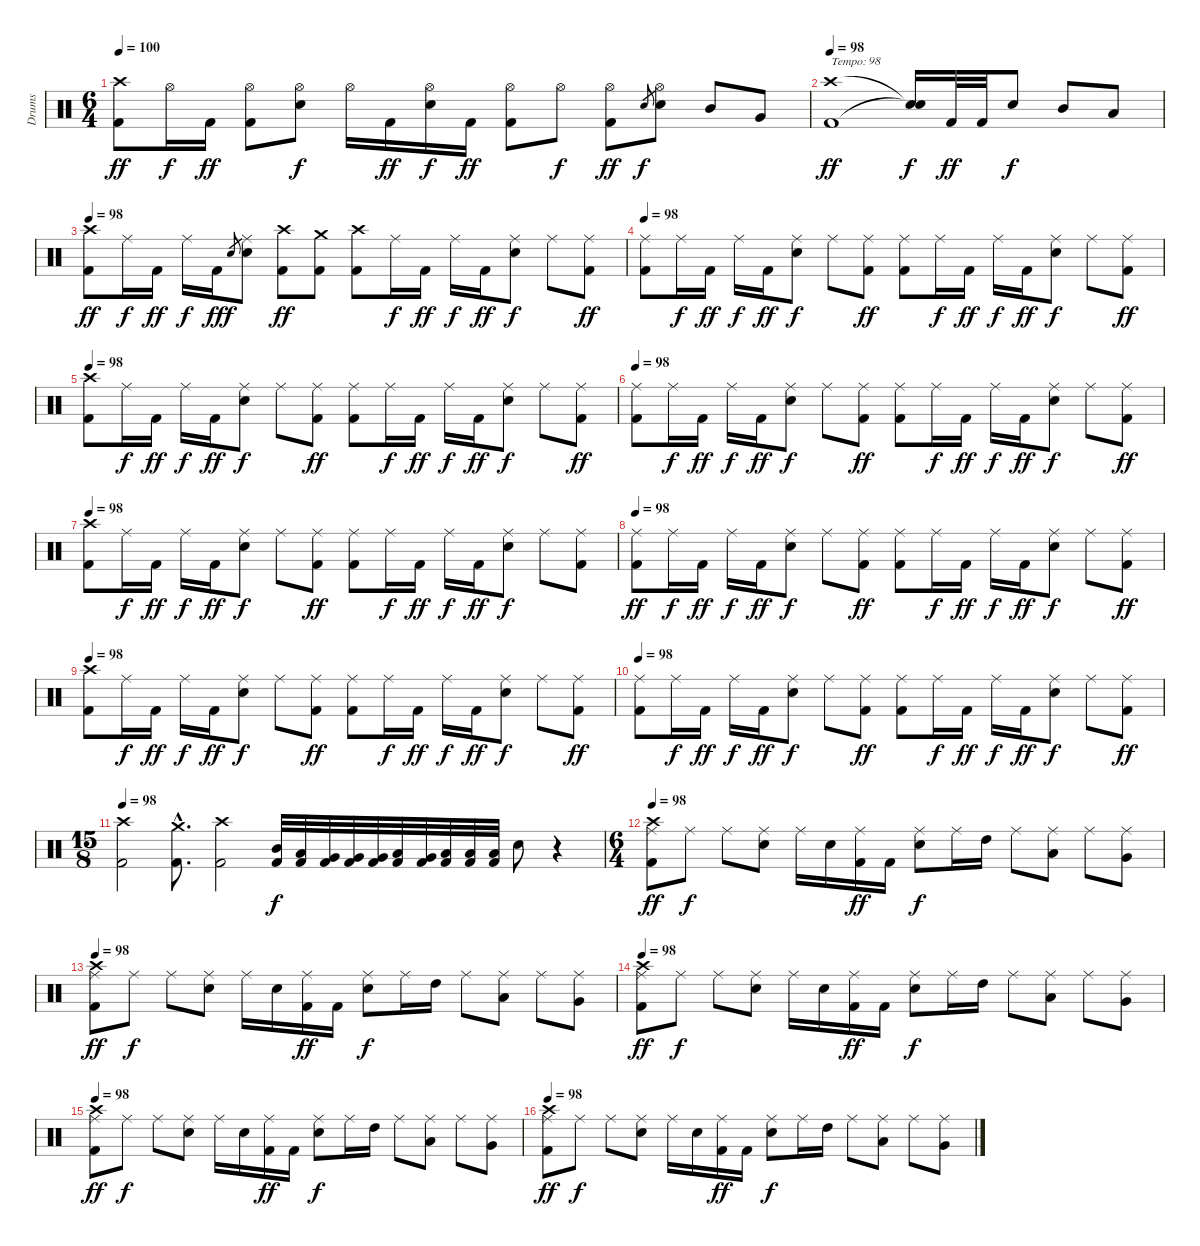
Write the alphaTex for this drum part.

\track ("Drums" "Drums") {instrument percussion}
\staff {score}
\articulation defaults
\ts (6 4)
\tempo 100
\clef neutral
\ks c
("Crash high (hit)" "Kick (hit) 2").8{dy ff} "Hi-Hat (open)".16{dy f} "Kick (hit) 2".16{dy ff} ("Hi-Hat (open)" "Kick (hit) 2").8 ("Hi-Hat (open)" "Electric Snare (hit)").8{dy f} "Hi-Hat (open)".16 "Kick (hit) 2".16{dy ff} ("Hi-Hat (open)" "Electric Snare (hit)").16{dy f} "Kick (hit) 2".16{dy ff} ("Hi-Hat (open)" "Kick (hit) 2").8 "Hi-Hat (open)".8{dy f} ("Hi-Hat (open)" "Kick (hit) 2").8{dy ff} "Electric Snare (hit)".8{gr dy f} ("Hi-Hat (open)" "Electric Snare (hit)").8 "Mid Tom (hit)".8 "Very Low Tom (hit)".8 |
\tempo 98
("Crash high (hit)" "Kick (hit) 2").1{txt "Tempo: 98" dy ff} ("Snare (hit)"{t} "Snare (hit)"{t}).16{dy f} "Kick (hit) 2".32{dy ff} "Kick (hit) 2".32 "Electric Snare (hit)".8{dy f} "Mid Tom (hit)".8 "Low Tom (hit)".8 |
\tempo 98
("Crash high (hit)" "Kick (hit) 2").8{dy ff} "Ride (middle)".16{dy f} "Kick (hit) 2".16{dy ff} "Ride (middle)".16{dy f} "Kick (hit) 2".16{dy ff} "Electric Snare (hit)".8{gr dy f} ("Ride (middle)" "Electric Snare (hit)").8 ("Crash high (hit)" "Kick (hit) 2").8{dy ff} ("Crash medium (hit)" "Kick (hit) 2").8 ("Crash high (hit)" "Kick (hit) 2").8 "Ride (middle)".16{dy f} "Kick (hit) 2".16{dy ff} "Ride (middle)".16{dy f} "Kick (hit) 2".16{dy ff} ("Ride (middle)" "Electric Snare (hit)").8{dy f} "Ride (middle)".8 ("Ride (middle)" "Kick (hit) 2").8{dy ff} |
\tempo 98
("Ride (middle)" "Kick (hit) 2").8 "Ride (middle)".16{dy f} "Kick (hit) 2".16{dy ff} "Ride (middle)".16{dy f} "Kick (hit) 2".16{dy ff} ("Ride (middle)" "Electric Snare (hit)").8{dy f} "Ride (middle)".8 ("Ride (middle)" "Kick (hit) 2").8{dy ff} ("Ride (middle)" "Kick (hit) 2").8 "Ride (middle)".16{dy f} "Kick (hit) 2".16{dy ff} "Ride (middle)".16{dy f} "Kick (hit) 2".16{dy ff} ("Ride (middle)" "Electric Snare (hit)").8{dy f} "Ride (middle)".8 ("Ride (middle)" "Kick (hit) 2").8{dy ff} |
\tempo 98
("Crash high (hit)" "Kick (hit) 2").8 "Ride (middle)".16{dy f} "Kick (hit) 2".16{dy ff} "Ride (middle)".16{dy f} "Kick (hit) 2".16{dy ff} ("Ride (middle)" "Electric Snare (hit)").8{dy f} "Ride (middle)".8 ("Ride (middle)" "Kick (hit) 2").8{dy ff} ("Ride (middle)" "Kick (hit) 2").8 "Ride (middle)".16{dy f} "Kick (hit) 2".16{dy ff} "Ride (middle)".16{dy f} "Kick (hit) 2".16{dy ff} ("Ride (middle)" "Electric Snare (hit)").8{dy f} "Ride (middle)".8 ("Ride (middle)" "Kick (hit) 2").8{dy ff} |
\tempo 98
("Ride (middle)" "Kick (hit) 2").8 "Ride (middle)".16{dy f} "Kick (hit) 2".16{dy ff} "Ride (middle)".16{dy f} "Kick (hit) 2".16{dy ff} ("Ride (middle)" "Electric Snare (hit)").8{dy f} "Ride (middle)".8 ("Ride (middle)" "Kick (hit) 2").8{dy ff} ("Ride (middle)" "Kick (hit) 2").8 "Ride (middle)".16{dy f} "Kick (hit) 2".16{dy ff} "Ride (middle)".16{dy f} "Kick (hit) 2".16{dy ff} ("Ride (middle)" "Electric Snare (hit)").8{dy f} "Ride (middle)".8 ("Ride (middle)" "Kick (hit) 2").8{dy ff} |
\tempo 98
("Crash high (hit)" "Kick (hit) 2").8 "Ride (middle)".16{dy f} "Kick (hit) 2".16{dy ff} "Ride (middle)".16{dy f} "Kick (hit) 2".16{dy ff} ("Ride (middle)" "Electric Snare (hit)").8{dy f} "Ride (middle)".8 ("Ride (middle)" "Kick (hit) 2").8{dy ff} ("Ride (middle)" "Kick (hit) 2").8 "Ride (middle)".16{dy f} "Kick (hit) 2".16{dy ff} "Ride (middle)".16{dy f} "Kick (hit) 2".16{dy ff} ("Ride (middle)" "Electric Snare (hit)").8{dy f} "Ride (middle)".8 ("Ride (middle)" "Kick (hit) 2").8 |
\tempo 98
("Ride (middle)" "Kick (hit) 2").8{dy ff} "Ride (middle)".16{dy f} "Kick (hit) 2".16{dy ff} "Ride (middle)".16{dy f} "Kick (hit) 2".16{dy ff} ("Ride (middle)" "Electric Snare (hit)").8{dy f} "Ride (middle)".8 ("Ride (middle)" "Kick (hit) 2").8{dy ff} ("Ride (middle)" "Kick (hit) 2").8 "Ride (middle)".16{dy f} "Kick (hit) 2".16{dy ff} "Ride (middle)".16{dy f} "Kick (hit) 2".16{dy ff} ("Ride (middle)" "Electric Snare (hit)").8{dy f} "Ride (middle)".8 ("Ride (middle)" "Kick (hit) 2").8{dy ff} |
\tempo 98
("Crash high (hit)" "Kick (hit) 2").8 "Ride (middle)".16{dy f} "Kick (hit) 2".16{dy ff} "Ride (middle)".16{dy f} "Kick (hit) 2".16{dy ff} ("Ride (middle)" "Electric Snare (hit)").8{dy f} "Ride (middle)".8 ("Ride (middle)" "Kick (hit) 2").8{dy ff} ("Ride (middle)" "Kick (hit) 2").8 "Ride (middle)".16{dy f} "Kick (hit) 2".16{dy ff} "Ride (middle)".16{dy f} "Kick (hit) 2".16{dy ff} ("Ride (middle)" "Electric Snare (hit)").8{dy f} "Ride (middle)".8 ("Ride (middle)" "Kick (hit) 2").8{dy ff} |
\tempo 98
("Ride (middle)" "Kick (hit) 2").8 "Ride (middle)".16{dy f} "Kick (hit) 2".16{dy ff} "Ride (middle)".16{dy f} "Kick (hit) 2".16{dy ff} ("Ride (middle)" "Electric Snare (hit)").8{dy f} "Ride (middle)".8 ("Ride (middle)" "Kick (hit) 2").8{dy ff} ("Ride (middle)" "Kick (hit) 2").8 "Ride (middle)".16{dy f} "Kick (hit) 2".16{dy ff} "Ride (middle)".16{dy f} "Kick (hit) 2".16{dy ff} ("Ride (middle)" "Electric Snare (hit)").8{dy f} "Ride (middle)".8 ("Ride (middle)" "Kick (hit) 2").8{dy ff} |
\ts (15 8)
\tempo 98
("Crash high (hit)" "Kick (hit) 2").2 ("Crash medium (hit)"{hac} "Kick (hit) 2"{hac}).8{d} ("Crash high (hit)" "Kick (hit) 2").2 ("Mid Tom (hit)" "Kick (hit) 2").32{dy f} ("Low Tom (hit)" "Kick (hit) 2").32 ("Very Low Tom (hit)" "Kick (hit) 2").32 ("Very Low Tom (hit)" "Kick (hit) 2").32 ("Very Low Tom (hit)" "Kick (hit) 2").32 ("Low Floor Tom (hit)" "Kick (hit) 2").32 ("Very Low Tom (hit)" "Kick (hit) 2").32 ("Low Floor Tom (hit)" "Kick (hit) 2").32 ("Low Floor Tom (hit)" "Kick (hit) 2").32 ("Low Floor Tom (hit)" "Kick (hit) 2").32 "Electric Snare (hit)".8 r.4 |
\ts (6 4)
\tempo 98
("Crash high (hit)" "Ride (middle)" "Kick (hit) 2").8{dy ff} "Ride (middle)".8{dy f} "Ride (middle)".8 ("Ride (middle)" "Electric Snare (hit)").8 "Ride (middle)".16 "Electric Snare (hit)".16 ("Ride (middle)" "Kick (hit) 2").16{dy ff} "Kick (hit) 2".16 ("Ride (middle)" "Electric Snare (hit)").8{dy f} "Ride (middle)".16 "High Tom (hit)".16 "Ride (middle)".8 ("Ride (middle)" "Low Tom (hit)").8 "Ride (middle)".8 ("Ride (middle)" "Very Low Tom (hit)").8 |
\tempo 98
("Crash high (hit)" "Ride (middle)" "Kick (hit) 2").8{dy ff} "Ride (middle)".8{dy f} "Ride (middle)".8 ("Ride (middle)" "Electric Snare (hit)").8 "Ride (middle)".16 "Electric Snare (hit)".16 ("Ride (middle)" "Kick (hit) 2").16{dy ff} "Kick (hit) 2".16 ("Ride (middle)" "Electric Snare (hit)").8{dy f} "Ride (middle)".16 "High Tom (hit)".16 "Ride (middle)".8 ("Ride (middle)" "Low Tom (hit)").8 "Ride (middle)".8 ("Ride (middle)" "Very Low Tom (hit)").8 |
\tempo 98
("Crash high (hit)" "Ride (middle)" "Kick (hit) 2").8{dy ff} "Ride (middle)".8{dy f} "Ride (middle)".8 ("Ride (middle)" "Electric Snare (hit)").8 "Ride (middle)".16 "Electric Snare (hit)".16 ("Ride (middle)" "Kick (hit) 2").16{dy ff} "Kick (hit) 2".16 ("Ride (middle)" "Electric Snare (hit)").8{dy f} "Ride (middle)".16 "High Tom (hit)".16 "Ride (middle)".8 ("Ride (middle)" "Low Tom (hit)").8 "Ride (middle)".8 ("Ride (middle)" "Very Low Tom (hit)").8 |
\tempo 98
("Crash high (hit)" "Ride (middle)" "Kick (hit) 2").8{dy ff} "Ride (middle)".8{dy f} "Ride (middle)".8 ("Ride (middle)" "Electric Snare (hit)").8 "Ride (middle)".16 "Electric Snare (hit)".16 ("Ride (middle)" "Kick (hit) 2").16{dy ff} "Kick (hit) 2".16 ("Ride (middle)" "Electric Snare (hit)").8{dy f} "Ride (middle)".16 "High Tom (hit)".16 "Ride (middle)".8 ("Ride (middle)" "Low Tom (hit)").8 "Ride (middle)".8 ("Ride (middle)" "Very Low Tom (hit)").8 |
\tempo 98
("Crash high (hit)" "Ride (middle)" "Kick (hit) 2").8{dy ff} "Ride (middle)".8{dy f} "Ride (middle)".8 ("Ride (middle)" "Electric Snare (hit)").8 "Ride (middle)".16 "Electric Snare (hit)".16 ("Ride (middle)" "Kick (hit) 2").16{dy ff} "Kick (hit) 2".16 ("Ride (middle)" "Electric Snare (hit)").8{dy f} "Ride (middle)".16 "High Tom (hit)".16 "Ride (middle)".8 ("Ride (middle)" "Low Tom (hit)").8 "Ride (middle)".8 ("Ride (middle)" "Very Low Tom (hit)").8
